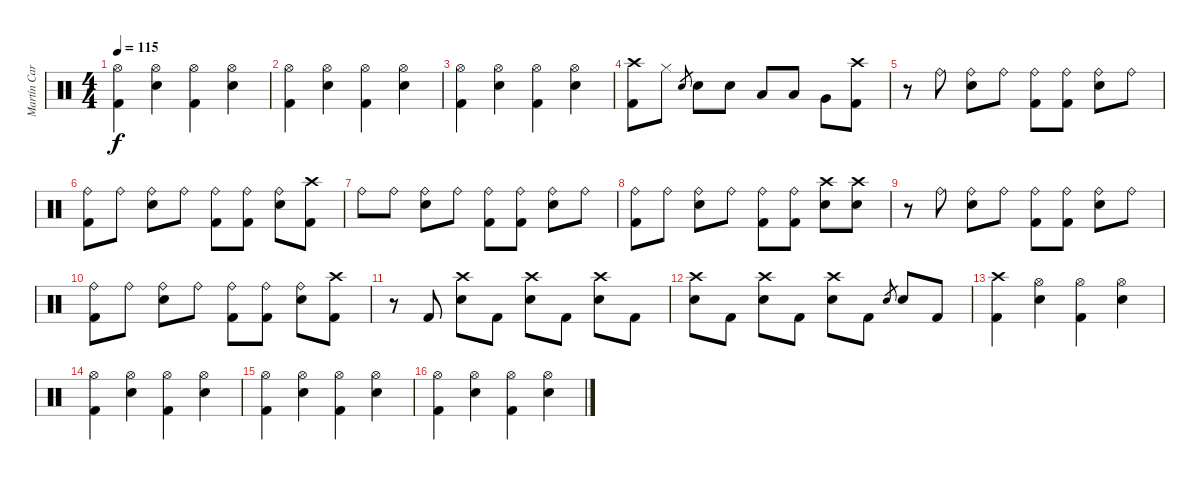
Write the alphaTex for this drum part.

\track ("Martín Carrizo" "Martín Car") {instrument percussion}
\staff {score}
\articulation defaults
\ts (4 4)
\tempo 115
\clef neutral
\ks c
("Hi-Hat (open)" "Kick (hit) 2").4{dy f} ("Hi-Hat (open)" "Snare (hit) 2").4 ("Hi-Hat (open)" "Kick (hit) 2").4 ("Hi-Hat (open)" "Snare (hit) 2").4 |
("Hi-Hat (open)" "Kick (hit) 2").4 ("Hi-Hat (open)" "Snare (hit) 2").4 ("Hi-Hat (open)" "Kick (hit) 2").4 ("Hi-Hat (open)" "Snare (hit) 2").4 |
("Hi-Hat (open)" "Kick (hit) 2").4 ("Hi-Hat (open)" "Snare (hit) 2").4 ("Hi-Hat (open)" "Kick (hit) 2").4 ("Hi-Hat (open)" "Snare (hit) 2").4 |
("Crash high (hit)" "Kick (hit) 2").8 "Hi-Hat (closed)".8 "Snare (hit) 2".8{gr} "Snare (hit) 2".8 "Snare (hit) 2".8 "Low Tom (hit)".8 "Low Tom (hit)".8 "Very Low Tom (hit)".8 ("Crash high (hit)" "Kick (hit) 2").8 |
r.8 "Ride (bell)".8 ("Ride (bell)" "Snare (hit) 2").8 "Ride (bell)".8 ("Ride (bell)" "Kick (hit) 2").8 ("Ride (bell)" "Kick (hit) 2").8 ("Ride (bell)" "Snare (hit) 2").8 "Ride (bell)".8 |
("Ride (bell)" "Kick (hit) 2").8 "Ride (bell)".8 ("Ride (bell)" "Snare (hit) 2").8 "Ride (bell)".8 ("Ride (bell)" "Kick (hit) 2").8 ("Ride (bell)" "Kick (hit) 2").8 ("Ride (bell)" "Snare (hit) 2").8 ("Crash high (hit)" "Kick (hit) 2").8 |
"Ride (bell)".8 "Ride (bell)".8 ("Ride (bell)" "Snare (hit) 2").8 "Ride (bell)".8 ("Ride (bell)" "Kick (hit) 2").8 ("Ride (bell)" "Kick (hit) 2").8 ("Ride (bell)" "Snare (hit) 2").8 "Ride (bell)".8 |
("Ride (bell)" "Kick (hit) 2").8 "Ride (bell)".8 ("Ride (bell)" "Snare (hit) 2").8 "Ride (bell)".8 ("Ride (bell)" "Kick (hit) 2").8 ("Ride (bell)" "Kick (hit) 2").8 ("Crash high (hit)" "Snare (hit) 2").8 ("Crash high (hit)" "Snare (hit) 2").8 |
r.8 "Ride (bell)".8 ("Ride (bell)" "Snare (hit) 2").8 "Ride (bell)".8 ("Ride (bell)" "Kick (hit) 2").8 ("Ride (bell)" "Kick (hit) 2").8 ("Ride (bell)" "Snare (hit) 2").8 "Ride (bell)".8 |
("Ride (bell)" "Kick (hit) 2").8 "Ride (bell)".8 ("Ride (bell)" "Snare (hit) 2").8 "Ride (bell)".8 ("Ride (bell)" "Kick (hit) 2").8 ("Ride (bell)" "Kick (hit) 2").8 ("Ride (bell)" "Snare (hit) 2").8 ("Crash high (hit)" "Kick (hit) 2").8 |
r.8 "Kick (hit) 2".8 ("Crash high (hit)" "Snare (hit) 2").8 "Kick (hit) 2".8 ("Crash high (hit)" "Snare (hit) 2").8 "Kick (hit) 2".8 ("Crash high (hit)" "Snare (hit) 2").8 "Kick (hit) 2".8 |
("Crash high (hit)" "Snare (hit) 2").8 "Kick (hit) 2".8 ("Crash high (hit)" "Snare (hit) 2").8 "Kick (hit) 2".8 ("Crash high (hit)" "Snare (hit) 2").8 "Kick (hit) 2".8 "Snare (hit) 2".8{gr} "Snare (hit) 2".8 "Kick (hit) 2".8 |
("Crash high (hit)" "Kick (hit) 2").4 ("Hi-Hat (open)" "Snare (hit) 2").4 ("Hi-Hat (open)" "Kick (hit) 2").4 ("Hi-Hat (open)" "Snare (hit) 2").4 |
("Hi-Hat (open)" "Kick (hit) 2").4 ("Hi-Hat (open)" "Snare (hit) 2").4 ("Hi-Hat (open)" "Kick (hit) 2").4 ("Hi-Hat (open)" "Snare (hit) 2").4 |
("Hi-Hat (open)" "Kick (hit) 2").4 ("Hi-Hat (open)" "Snare (hit) 2").4 ("Hi-Hat (open)" "Kick (hit) 2").4 ("Hi-Hat (open)" "Snare (hit) 2").4 |
("Hi-Hat (open)" "Kick (hit) 2").4 ("Hi-Hat (open)" "Snare (hit) 2").4 ("Hi-Hat (open)" "Kick (hit) 2").4 ("Hi-Hat (open)" "Snare (hit) 2").4
